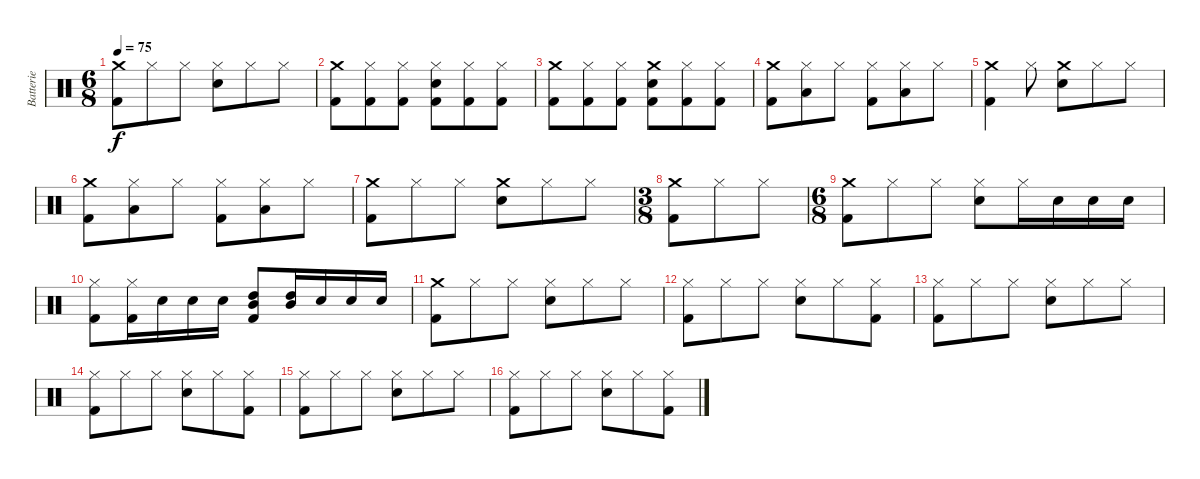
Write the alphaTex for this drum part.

\track ("Batterie" "Batterie") {instrument percussion}
\staff {score}
\articulation defaults
\ts (6 8)
\tempo 75
\clef neutral
\ks c
("Kick (hit) 2" "Crash medium (hit)").8{dy f} "Hi-Hat (closed)".8 "Hi-Hat (closed)".8 ("Snare (hit) 2" "Hi-Hat (closed)").8 "Hi-Hat (closed)".8 "Hi-Hat (closed)".8 |
("Kick (hit) 2" "Crash medium (hit)").8 ("Hi-Hat (closed)" "Kick (hit) 2").8 ("Hi-Hat (closed)" "Kick (hit) 2").8 ("Snare (hit) 2" "Hi-Hat (closed)" "Kick (hit) 2").8 ("Hi-Hat (closed)" "Kick (hit) 2").8 ("Hi-Hat (closed)" "Kick (hit) 2").8 |
("Crash medium (hit)" "Kick (hit) 2").8 ("Hi-Hat (closed)" "Kick (hit) 2").8 ("Hi-Hat (closed)" "Kick (hit) 2").8 ("Crash medium (hit)" "Snare (hit) 2" "Kick (hit) 2").8 ("Hi-Hat (closed)" "Kick (hit) 2").8 ("Hi-Hat (closed)" "Kick (hit) 2").8 |
("Kick (hit) 2" "Crash medium (hit)").8 ("Low Tom (hit)" "Hi-Hat (closed)").8 "Hi-Hat (closed)".8 ("Kick (hit) 2" "Hi-Hat (closed)").8 ("Hi-Hat (closed)" "Low Tom (hit)").8 "Hi-Hat (closed)".8 |
("Kick (hit) 2" "Crash medium (hit)").4 "Hi-Hat (closed)".8 ("Crash medium (hit)" "Snare (hit) 2").8 "Hi-Hat (closed)".8 "Hi-Hat (closed)".8 |
("Kick (hit) 2" "Crash medium (hit)").8 ("Low Tom (hit)" "Hi-Hat (closed)").8 "Hi-Hat (closed)".8 ("Kick (hit) 2" "Hi-Hat (closed)").8 ("Hi-Hat (closed)" "Low Tom (hit)").8 "Hi-Hat (closed)".8 |
("Kick (hit) 2" "Crash medium (hit)").8 "Hi-Hat (closed)".8 "Hi-Hat (closed)".8 ("Crash medium (hit)" "Snare (hit) 2").8 "Hi-Hat (closed)".8 "Hi-Hat (closed)".8 |
\ts (3 8)
("Crash medium (hit)" "Kick (hit) 2").8 "Hi-Hat (closed)".8 "Hi-Hat (closed)".8 |
\ts (6 8)
("Kick (hit) 2" "Crash medium (hit)").8 "Hi-Hat (closed)".8 "Hi-Hat (closed)".8 ("Snare (hit) 2" "Hi-Hat (closed)").8 "Hi-Hat (closed)".16 "Snare (hit) 2".16 "Snare (hit) 2".16 "Snare (hit) 2".16 |
("Kick (hit) 2" "Hi-Hat (closed)").8 ("Hi-Hat (closed)" "Kick (hit) 2").16 "Snare (hit) 2".16 "Snare (hit) 2".16 "Snare (hit) 2".16 ("High Tom (hit)" "Mid Tom (hit)" "Kick (hit) 2").8 ("High Tom (hit)" "Mid Tom (hit)").16 "Snare (hit) 2".16 "Snare (hit) 2".16 "Snare (hit) 2".16 |
("Kick (hit) 2" "Crash medium (hit)").8 "Hi-Hat (closed)".8 "Hi-Hat (closed)".8 ("Snare (hit) 2" "Hi-Hat (closed)").8 "Hi-Hat (closed)".8 "Hi-Hat (closed)".8 |
("Kick (hit) 2" "Hi-Hat (closed)").8 "Hi-Hat (closed)".8 "Hi-Hat (closed)".8 ("Snare (hit) 2" "Hi-Hat (closed)").8 "Hi-Hat (closed)".8 ("Kick (hit) 2" "Hi-Hat (closed)").8 |
("Hi-Hat (closed)" "Kick (hit) 2").8 "Hi-Hat (closed)".8 "Hi-Hat (closed)".8 ("Snare (hit) 2" "Hi-Hat (closed)").8 "Hi-Hat (closed)".8 "Hi-Hat (closed)".8 |
("Kick (hit) 2" "Hi-Hat (closed)").8 "Hi-Hat (closed)".8 "Hi-Hat (closed)".8 ("Snare (hit) 2" "Hi-Hat (closed)").8 "Hi-Hat (closed)".8 ("Kick (hit) 2" "Hi-Hat (closed)").8 |
("Kick (hit) 2" "Hi-Hat (closed)").8 "Hi-Hat (closed)".8 "Hi-Hat (closed)".8 ("Snare (hit) 2" "Hi-Hat (closed)").8 "Hi-Hat (closed)".8 "Hi-Hat (closed)".8 |
("Kick (hit) 2" "Hi-Hat (closed)").8 "Hi-Hat (closed)".8 "Hi-Hat (closed)".8 ("Snare (hit) 2" "Hi-Hat (closed)").8 "Hi-Hat (closed)".8 ("Kick (hit) 2" "Hi-Hat (closed)").8
